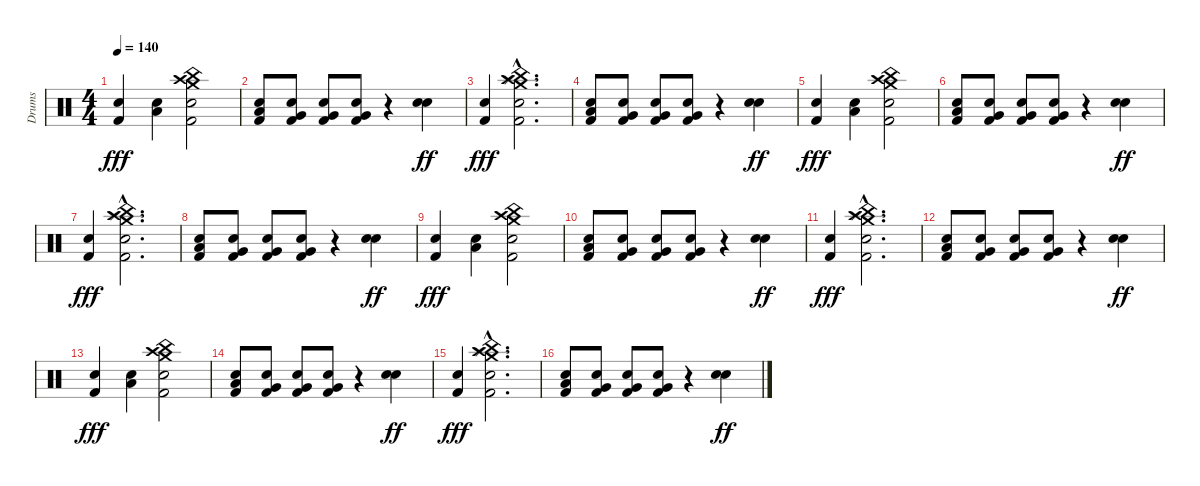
\track ("Drums" "Drums") {instrument percussion}
\staff {score}
\articulation defaults
\ts (4 4)
\tempo 140
\clef neutral
\ks c
("Kick (hit) 2" "Snare (hit) 2").4{dy fff} ("Low Floor Tom (hit)" "Snare (hit) 2").4 ("Crash medium (hit)" "Snare (hit) 2" "China (hit)" "Crash high (hit)" "Kick (hit) 2").2 |
("Snare (hit) 2" "Low Floor Tom (hit)" "Kick (hit) 2").8 ("Snare (hit) 2" "Very Low Tom (hit)" "Kick (hit) 2").8 ("Snare (hit) 2" "Very Low Tom (hit)" "Kick (hit) 2").8 ("Snare (hit) 2" "Very Low Tom (hit)" "Kick (hit) 2").8 r.4 ("Electric Snare (hit)" "Snare (hit) 2").4{dy ff} |
("Snare (hit) 2" "Kick (hit) 2").4{dy fff} ("Crash medium (hit)"{hac} "China (hit)"{hac} "Snare (hit) 2"{hac} "Kick (hit) 2"{hac} "Splash (hit)"{hac} "Crash high (hit)"{hac}).2{d} |
("Snare (hit) 2" "Low Floor Tom (hit)" "Kick (hit) 2").8 ("Snare (hit) 2" "Very Low Tom (hit)" "Kick (hit) 2").8 ("Snare (hit) 2" "Very Low Tom (hit)" "Kick (hit) 2").8 ("Snare (hit) 2" "Very Low Tom (hit)" "Kick (hit) 2").8 r.4 ("Electric Snare (hit)" "Snare (hit) 2").4{dy ff} |
("Kick (hit) 2" "Snare (hit) 2").4{dy fff} ("Low Floor Tom (hit)" "Snare (hit) 2").4 ("Crash medium (hit)" "Snare (hit) 2" "China (hit)" "Crash high (hit)" "Kick (hit) 2").2 |
("Snare (hit) 2" "Low Floor Tom (hit)" "Kick (hit) 2").8 ("Snare (hit) 2" "Very Low Tom (hit)" "Kick (hit) 2").8 ("Snare (hit) 2" "Very Low Tom (hit)" "Kick (hit) 2").8 ("Snare (hit) 2" "Very Low Tom (hit)" "Kick (hit) 2").8 r.4 ("Electric Snare (hit)" "Snare (hit) 2").4{dy ff} |
("Snare (hit) 2" "Kick (hit) 2").4{dy fff} ("Crash medium (hit)"{hac} "China (hit)"{hac} "Snare (hit) 2"{hac} "Kick (hit) 2"{hac} "Splash (hit)"{hac} "Crash high (hit)"{hac}).2{d} |
("Snare (hit) 2" "Low Floor Tom (hit)" "Kick (hit) 2").8 ("Snare (hit) 2" "Very Low Tom (hit)" "Kick (hit) 2").8 ("Snare (hit) 2" "Very Low Tom (hit)" "Kick (hit) 2").8 ("Snare (hit) 2" "Very Low Tom (hit)" "Kick (hit) 2").8 r.4 ("Electric Snare (hit)" "Snare (hit) 2").4{dy ff} |
("Kick (hit) 2" "Snare (hit) 2").4{dy fff} ("Low Floor Tom (hit)" "Snare (hit) 2").4 ("Crash medium (hit)" "Snare (hit) 2" "China (hit)" "Crash high (hit)" "Kick (hit) 2").2 |
("Snare (hit) 2" "Low Floor Tom (hit)" "Kick (hit) 2").8 ("Snare (hit) 2" "Very Low Tom (hit)" "Kick (hit) 2").8 ("Snare (hit) 2" "Very Low Tom (hit)" "Kick (hit) 2").8 ("Snare (hit) 2" "Very Low Tom (hit)" "Kick (hit) 2").8 r.4 ("Electric Snare (hit)" "Snare (hit) 2").4{dy ff} |
("Snare (hit) 2" "Kick (hit) 2").4{dy fff} ("Crash medium (hit)"{hac} "China (hit)"{hac} "Snare (hit) 2"{hac} "Kick (hit) 2"{hac} "Splash (hit)"{hac} "Crash high (hit)"{hac}).2{d} |
("Snare (hit) 2" "Low Floor Tom (hit)" "Kick (hit) 2").8 ("Snare (hit) 2" "Very Low Tom (hit)" "Kick (hit) 2").8 ("Snare (hit) 2" "Very Low Tom (hit)" "Kick (hit) 2").8 ("Snare (hit) 2" "Very Low Tom (hit)" "Kick (hit) 2").8 r.4 ("Electric Snare (hit)" "Snare (hit) 2").4{dy ff} |
("Kick (hit) 2" "Snare (hit) 2").4{dy fff} ("Low Floor Tom (hit)" "Snare (hit) 2").4 ("Crash medium (hit)" "Snare (hit) 2" "China (hit)" "Crash high (hit)" "Kick (hit) 2").2 |
("Snare (hit) 2" "Low Floor Tom (hit)" "Kick (hit) 2").8 ("Snare (hit) 2" "Very Low Tom (hit)" "Kick (hit) 2").8 ("Snare (hit) 2" "Very Low Tom (hit)" "Kick (hit) 2").8 ("Snare (hit) 2" "Very Low Tom (hit)" "Kick (hit) 2").8 r.4 ("Electric Snare (hit)" "Snare (hit) 2").4{dy ff} |
("Snare (hit) 2" "Kick (hit) 2").4{dy fff} ("Crash medium (hit)"{hac} "China (hit)"{hac} "Snare (hit) 2"{hac} "Kick (hit) 2"{hac} "Splash (hit)"{hac} "Crash high (hit)"{hac}).2{d} |
("Snare (hit) 2" "Low Floor Tom (hit)" "Kick (hit) 2").8 ("Snare (hit) 2" "Very Low Tom (hit)" "Kick (hit) 2").8 ("Snare (hit) 2" "Very Low Tom (hit)" "Kick (hit) 2").8 ("Snare (hit) 2" "Very Low Tom (hit)" "Kick (hit) 2").8 r.4 ("Electric Snare (hit)" "Snare (hit) 2").4{dy ff}
